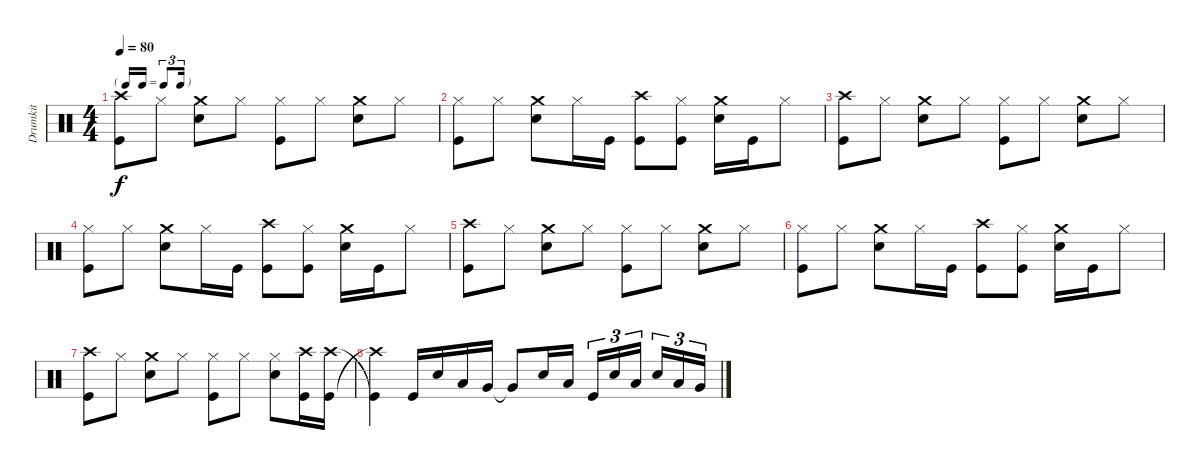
\track ("Drumkit" "Drumkit") {instrument percussion}
\staff {score}
\articulation defaults
\ts (4 4)
\tf triplet16th
\tempo 80
\clef neutral
\ks c
("Crash high (hit)" "Kick (hit)").8{dy f} "Hi-Hat (closed)".8 ("Crash medium (hit)" "Snare (hit) 2").8 "Hi-Hat (closed)".8 ("Hi-Hat (closed)" "Kick (hit)").8 "Hi-Hat (closed)".8 ("Crash medium (hit)" "Snare (hit) 2").8 "Hi-Hat (closed)".8 |
("Hi-Hat (closed)" "Kick (hit)").8 "Hi-Hat (closed)".8 ("Crash medium (hit)" "Snare (hit) 2").8 "Hi-Hat (closed)".16 "Kick (hit)".16 ("Crash high (hit)" "Kick (hit)").8 ("Hi-Hat (closed)" "Kick (hit)").8 ("Crash medium (hit)" "Snare (hit) 2").16 "Kick (hit)".16 "Hi-Hat (closed)".8 |
("Crash high (hit)" "Kick (hit)").8 "Hi-Hat (closed)".8 ("Crash medium (hit)" "Snare (hit) 2").8 "Hi-Hat (closed)".8 ("Hi-Hat (closed)" "Kick (hit)").8 "Hi-Hat (closed)".8 ("Crash medium (hit)" "Snare (hit) 2").8 "Hi-Hat (closed)".8 |
("Hi-Hat (closed)" "Kick (hit)").8 "Hi-Hat (closed)".8 ("Crash medium (hit)" "Snare (hit) 2").8 "Hi-Hat (closed)".16 "Kick (hit)".16 ("Crash high (hit)" "Kick (hit)").8 ("Hi-Hat (closed)" "Kick (hit)").8 ("Crash medium (hit)" "Snare (hit) 2").16 "Kick (hit)".16 "Hi-Hat (closed)".8 |
("Crash high (hit)" "Kick (hit)").8 "Hi-Hat (closed)".8 ("Crash medium (hit)" "Snare (hit) 2").8 "Hi-Hat (closed)".8 ("Hi-Hat (closed)" "Kick (hit)").8 "Hi-Hat (closed)".8 ("Crash medium (hit)" "Snare (hit) 2").8 "Hi-Hat (closed)".8 |
("Hi-Hat (closed)" "Kick (hit)").8 "Hi-Hat (closed)".8 ("Crash medium (hit)" "Snare (hit) 2").8 "Hi-Hat (closed)".16 "Kick (hit)".16 ("Crash high (hit)" "Kick (hit)").8 ("Hi-Hat (closed)" "Kick (hit)").8 ("Crash medium (hit)" "Snare (hit) 2").16 "Kick (hit)".16 "Hi-Hat (closed)".8 |
("Crash high (hit)" "Kick (hit)").8 "Hi-Hat (closed)".8 ("Crash medium (hit)" "Snare (hit) 2").8 "Hi-Hat (closed)".8 ("Hi-Hat (closed)" "Kick (hit)").8 "Hi-Hat (closed)".8 ("Snare (hit) 2" "Hi-Hat (closed)").8 ("Crash high (hit)" "Kick (hit)").16 ("Kick (hit)" "Crash high (hit)").16 |
("Crash high (hit)"{t} "Kick (hit)"{t}).4 "Kick (hit)".16 "Snare (hit) 2".16 "Low Tom (hit)".16 "Very Low Tom (hit)".16 "Very Low Tom (hit)"{t}.8 "Snare (hit) 2".16 "Low Tom (hit)".16 "Kick (hit)".16{tu (3 2)} "Snare (hit) 2".16{tu (3 2)} "Low Tom (hit)".16{tu (3 2)} "Snare (hit) 2".16{tu (3 2)} "Low Tom (hit)".16{tu (3 2)} "Very Low Tom (hit)".16{tu (3 2)}
